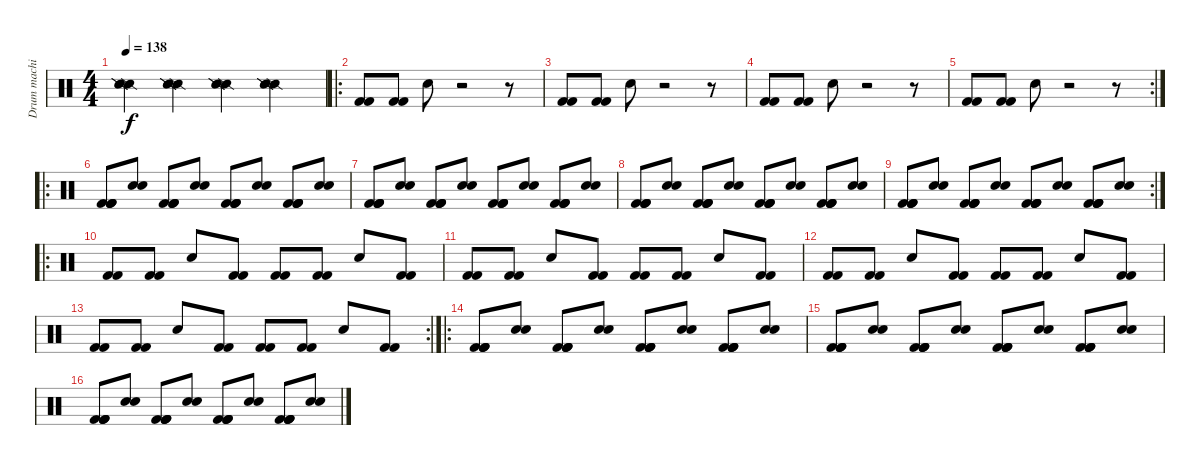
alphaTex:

\track ("Drum machine" "Drum machi") {instrument percussion}
\staff {score}
\articulation defaults
\ts (4 4)
\tempo 138
\clef neutral
\ks c
("Snare (side stick) 2" "Snare (side stick) 2" "Snare (side stick) 2").4{dy f} ("Snare (side stick) 2" "Snare (side stick) 2" "Snare (side stick) 2").4 ("Snare (side stick) 2" "Snare (side stick) 2" "Snare (side stick) 2").4 ("Snare (side stick) 2" "Snare (side stick) 2" "Snare (side stick) 2").4 |
\ro
("Kick (hit) 2" "Kick (hit) 2").8 ("Kick (hit) 2" "Kick (hit) 2").8 "Electric Snare (hit)".8 r.2 r.8 |
("Kick (hit) 2" "Kick (hit) 2").8 ("Kick (hit) 2" "Kick (hit) 2").8 "Electric Snare (hit)".8 r.2 r.8 |
("Kick (hit) 2" "Kick (hit) 2").8 ("Kick (hit) 2" "Kick (hit) 2").8 "Electric Snare (hit)".8 r.2 r.8 |
\rc 2
("Kick (hit) 2" "Kick (hit) 2").8 ("Kick (hit) 2" "Kick (hit) 2").8 "Electric Snare (hit)".8 r.2 r.8 |
\ro
("Kick (hit) 2" "Kick (hit) 2" "Kick (hit) 2" "Kick (hit) 2").8 ("Electric Snare (hit)" "Electric Snare (hit)").8 ("Kick (hit) 2" "Kick (hit) 2" "Kick (hit) 2" "Kick (hit) 2").8 ("Electric Snare (hit)" "Electric Snare (hit)").8 ("Kick (hit) 2" "Kick (hit) 2" "Kick (hit) 2" "Kick (hit) 2").8 ("Electric Snare (hit)" "Electric Snare (hit)").8 ("Kick (hit) 2" "Kick (hit) 2" "Kick (hit) 2" "Kick (hit) 2").8 ("Electric Snare (hit)" "Electric Snare (hit)").8 |
("Kick (hit) 2" "Kick (hit) 2" "Kick (hit) 2" "Kick (hit) 2").8 ("Electric Snare (hit)" "Electric Snare (hit)").8 ("Kick (hit) 2" "Kick (hit) 2" "Kick (hit) 2" "Kick (hit) 2").8 ("Electric Snare (hit)" "Electric Snare (hit)").8 ("Kick (hit) 2" "Kick (hit) 2" "Kick (hit) 2" "Kick (hit) 2").8 ("Electric Snare (hit)" "Electric Snare (hit)").8 ("Kick (hit) 2" "Kick (hit) 2" "Kick (hit) 2" "Kick (hit) 2").8 ("Electric Snare (hit)" "Electric Snare (hit)").8 |
("Kick (hit) 2" "Kick (hit) 2" "Kick (hit) 2" "Kick (hit) 2").8 ("Electric Snare (hit)" "Electric Snare (hit)").8 ("Kick (hit) 2" "Kick (hit) 2" "Kick (hit) 2" "Kick (hit) 2").8 ("Electric Snare (hit)" "Electric Snare (hit)").8 ("Kick (hit) 2" "Kick (hit) 2" "Kick (hit) 2" "Kick (hit) 2").8 ("Electric Snare (hit)" "Electric Snare (hit)").8 ("Kick (hit) 2" "Kick (hit) 2" "Kick (hit) 2" "Kick (hit) 2").8 ("Electric Snare (hit)" "Electric Snare (hit)").8 |
\rc 2
("Kick (hit) 2" "Kick (hit) 2" "Kick (hit) 2" "Kick (hit) 2").8 ("Electric Snare (hit)" "Electric Snare (hit)").8 ("Kick (hit) 2" "Kick (hit) 2" "Kick (hit) 2" "Kick (hit) 2").8 ("Electric Snare (hit)" "Electric Snare (hit)").8 ("Kick (hit) 2" "Kick (hit) 2" "Kick (hit) 2" "Kick (hit) 2").8 ("Electric Snare (hit)" "Electric Snare (hit)").8 ("Kick (hit) 2" "Kick (hit) 2" "Kick (hit) 2" "Kick (hit) 2").8 ("Electric Snare (hit)" "Electric Snare (hit)").8 |
\ro
("Kick (hit) 2" "Kick (hit) 2").8 ("Kick (hit) 2" "Kick (hit) 2").8 "Electric Snare (hit)".8 ("Kick (hit) 2" "Kick (hit) 2").8 ("Kick (hit) 2" "Kick (hit) 2").8 ("Kick (hit) 2" "Kick (hit) 2").8 "Electric Snare (hit)".8 ("Kick (hit) 2" "Kick (hit) 2").8 |
("Kick (hit) 2" "Kick (hit) 2").8 ("Kick (hit) 2" "Kick (hit) 2").8 "Electric Snare (hit)".8 ("Kick (hit) 2" "Kick (hit) 2").8 ("Kick (hit) 2" "Kick (hit) 2").8 ("Kick (hit) 2" "Kick (hit) 2").8 "Electric Snare (hit)".8 ("Kick (hit) 2" "Kick (hit) 2").8 |
("Kick (hit) 2" "Kick (hit) 2").8 ("Kick (hit) 2" "Kick (hit) 2").8 "Electric Snare (hit)".8 ("Kick (hit) 2" "Kick (hit) 2").8 ("Kick (hit) 2" "Kick (hit) 2").8 ("Kick (hit) 2" "Kick (hit) 2").8 "Electric Snare (hit)".8 ("Kick (hit) 2" "Kick (hit) 2").8 |
\rc 2
("Kick (hit) 2" "Kick (hit) 2").8 ("Kick (hit) 2" "Kick (hit) 2").8 "Electric Snare (hit)".8 ("Kick (hit) 2" "Kick (hit) 2").8 ("Kick (hit) 2" "Kick (hit) 2").8 ("Kick (hit) 2" "Kick (hit) 2").8 "Electric Snare (hit)".8 ("Kick (hit) 2" "Kick (hit) 2").8 |
\ro
("Kick (hit) 2" "Kick (hit) 2" "Kick (hit) 2" "Kick (hit) 2").8 ("Electric Snare (hit)" "Electric Snare (hit)").8 ("Kick (hit) 2" "Kick (hit) 2" "Kick (hit) 2" "Kick (hit) 2").8 ("Electric Snare (hit)" "Electric Snare (hit)").8 ("Kick (hit) 2" "Kick (hit) 2" "Kick (hit) 2" "Kick (hit) 2").8 ("Electric Snare (hit)" "Electric Snare (hit)").8 ("Kick (hit) 2" "Kick (hit) 2" "Kick (hit) 2" "Kick (hit) 2").8 ("Electric Snare (hit)" "Electric Snare (hit)").8 |
("Kick (hit) 2" "Kick (hit) 2" "Kick (hit) 2" "Kick (hit) 2").8 ("Electric Snare (hit)" "Electric Snare (hit)").8 ("Kick (hit) 2" "Kick (hit) 2" "Kick (hit) 2" "Kick (hit) 2").8 ("Electric Snare (hit)" "Electric Snare (hit)").8 ("Kick (hit) 2" "Kick (hit) 2" "Kick (hit) 2" "Kick (hit) 2").8 ("Electric Snare (hit)" "Electric Snare (hit)").8 ("Kick (hit) 2" "Kick (hit) 2" "Kick (hit) 2" "Kick (hit) 2").8 ("Electric Snare (hit)" "Electric Snare (hit)").8 |
("Kick (hit) 2" "Kick (hit) 2" "Kick (hit) 2" "Kick (hit) 2").8 ("Electric Snare (hit)" "Electric Snare (hit)").8 ("Kick (hit) 2" "Kick (hit) 2" "Kick (hit) 2" "Kick (hit) 2").8 ("Electric Snare (hit)" "Electric Snare (hit)").8 ("Kick (hit) 2" "Kick (hit) 2" "Kick (hit) 2" "Kick (hit) 2").8 ("Electric Snare (hit)" "Electric Snare (hit)").8 ("Kick (hit) 2" "Kick (hit) 2" "Kick (hit) 2" "Kick (hit) 2").8 ("Electric Snare (hit)" "Electric Snare (hit)").8
